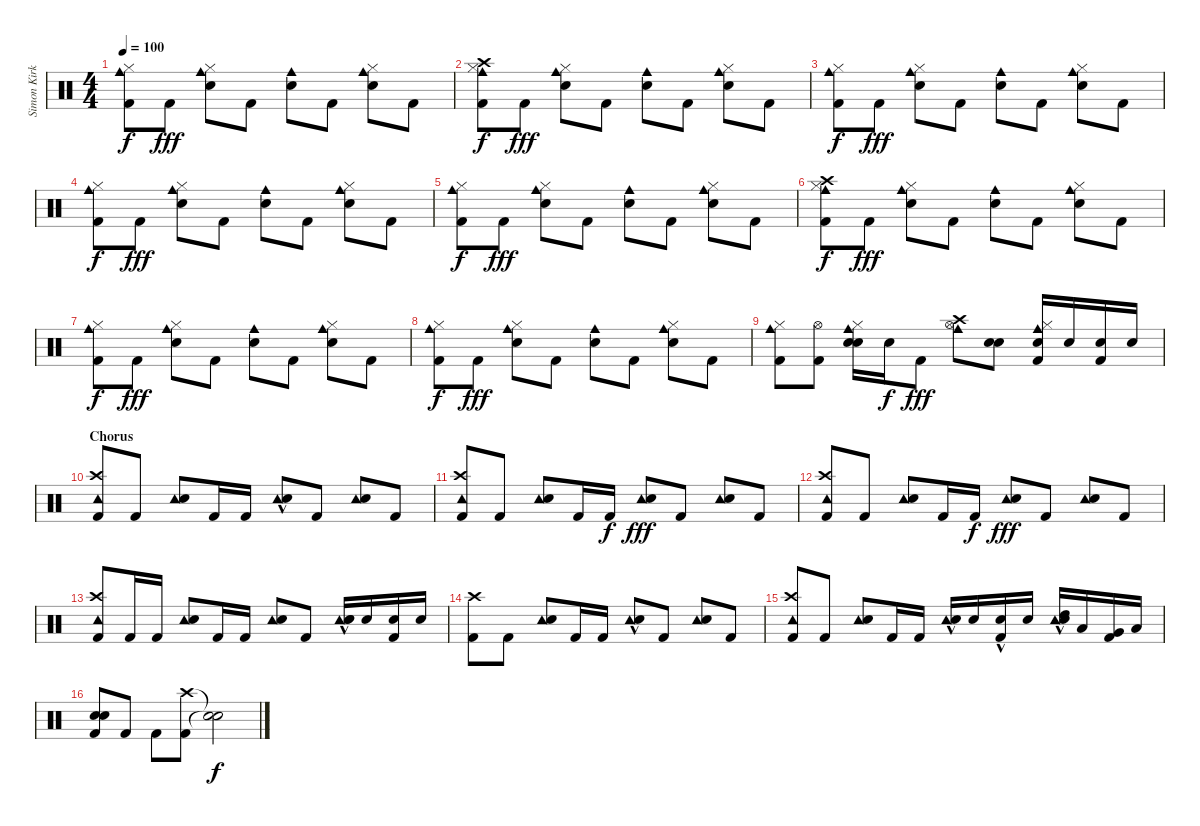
\track ("Simon Kirke" "Simon Kirk") {instrument percussion}
\staff {score}
\articulation defaults
\ts (4 4)
\tempo 100
\clef neutral
\ks c
("Kick (hit) 2" "Cowbell medium (hit)" "Hi-Hat (closed)").8{dy f} "Kick (hit) 2".8{dy fff} ("Cowbell medium (hit)" "Electric Snare (hit)" "Hi-Hat (closed)").8 "Kick (hit) 2".8 ("Cowbell medium (hit)" "Electric Snare (hit)").8 "Kick (hit) 2".8 ("Cowbell medium (hit)" "Electric Snare (hit)" "Hi-Hat (closed)").8 "Kick (hit) 2".8 |
("Kick (hit) 2" "Cowbell medium (hit)" "Hi-Hat (closed)" "Crash high (hit)").8{dy f} "Kick (hit) 2".8{dy fff} ("Cowbell medium (hit)" "Electric Snare (hit)" "Hi-Hat (closed)").8 "Kick (hit) 2".8 ("Cowbell medium (hit)" "Electric Snare (hit)").8 "Kick (hit) 2".8 ("Cowbell medium (hit)" "Electric Snare (hit)" "Hi-Hat (closed)").8 "Kick (hit) 2".8 |
("Kick (hit) 2" "Cowbell medium (hit)" "Hi-Hat (closed)").8{dy f} "Kick (hit) 2".8{dy fff} ("Cowbell medium (hit)" "Electric Snare (hit)" "Hi-Hat (closed)").8 "Kick (hit) 2".8 ("Cowbell medium (hit)" "Electric Snare (hit)").8 "Kick (hit) 2".8 ("Cowbell medium (hit)" "Electric Snare (hit)" "Hi-Hat (closed)").8 "Kick (hit) 2".8 |
("Kick (hit) 2" "Cowbell medium (hit)" "Hi-Hat (closed)").8{dy f} "Kick (hit) 2".8{dy fff} ("Cowbell medium (hit)" "Electric Snare (hit)" "Hi-Hat (closed)").8 "Kick (hit) 2".8 ("Cowbell medium (hit)" "Electric Snare (hit)").8 "Kick (hit) 2".8 ("Cowbell medium (hit)" "Electric Snare (hit)" "Hi-Hat (closed)").8 "Kick (hit) 2".8 |
("Kick (hit) 2" "Cowbell medium (hit)" "Hi-Hat (closed)").8{dy f} "Kick (hit) 2".8{dy fff} ("Cowbell medium (hit)" "Electric Snare (hit)" "Hi-Hat (closed)").8 "Kick (hit) 2".8 ("Cowbell medium (hit)" "Electric Snare (hit)").8 "Kick (hit) 2".8 ("Cowbell medium (hit)" "Electric Snare (hit)" "Hi-Hat (closed)").8 "Kick (hit) 2".8 |
("Kick (hit) 2" "Cowbell medium (hit)" "Hi-Hat (closed)" "Crash high (hit)").8{dy f} "Kick (hit) 2".8{dy fff} ("Cowbell medium (hit)" "Electric Snare (hit)" "Hi-Hat (closed)").8 "Kick (hit) 2".8 ("Cowbell medium (hit)" "Electric Snare (hit)").8 "Kick (hit) 2".8 ("Cowbell medium (hit)" "Electric Snare (hit)" "Hi-Hat (closed)").8 "Kick (hit) 2".8 |
("Kick (hit) 2" "Cowbell medium (hit)" "Hi-Hat (closed)").8{dy f} "Kick (hit) 2".8{dy fff} ("Cowbell medium (hit)" "Electric Snare (hit)" "Hi-Hat (closed)").8 "Kick (hit) 2".8 ("Cowbell medium (hit)" "Electric Snare (hit)").8 "Kick (hit) 2".8 ("Cowbell medium (hit)" "Electric Snare (hit)" "Hi-Hat (closed)").8 "Kick (hit) 2".8 |
("Kick (hit) 2" "Cowbell medium (hit)" "Hi-Hat (closed)").8{dy f} "Kick (hit) 2".8{dy fff} ("Cowbell medium (hit)" "Electric Snare (hit)" "Hi-Hat (closed)").8 "Kick (hit) 2".8 ("Cowbell medium (hit)" "Electric Snare (hit)").8 "Kick (hit) 2".8 ("Cowbell medium (hit)" "Electric Snare (hit)" "Hi-Hat (closed)").8 "Kick (hit) 2".8 |
("Kick (hit) 2" "Cowbell medium (hit)" "Hi-Hat (closed)").8 ("Kick (hit) 2" "Hi-Hat (open)").8 ("Cowbell medium (hit)" "Electric Snare (hit)" "Hi-Hat (closed)" "Electric Snare (hit)").16 "Electric Snare (hit)".16{dy f} "Kick (hit) 2".8{dy fff} ("Cowbell medium (hit)" "Crash high (hit)" "Hi-Hat (open)").8 ("Electric Snare (hit)" "Electric Snare (hit)").8 ("Kick (hit) 2" "Cowbell medium (hit)" "Electric Snare (hit)" "Hi-Hat (closed)").16 "Electric Snare (hit)".16 ("Electric Snare (hit)" "Kick (hit) 2").16 "Electric Snare (hit)".16 |
\section ("" "Chorus")
("Tambourine (hit)" "Crash high (hit)" "Kick (hit) 2").8 "Kick (hit) 2".8 ("Tambourine (hit)" "Electric Snare (hit)").8 "Kick (hit) 2".16 "Kick (hit) 2".16 ("Tambourine (hit)"{hac} "Electric Snare (hit)").8 "Kick (hit) 2".8 ("Tambourine (hit)" "Electric Snare (hit)").8 "Kick (hit) 2".8 |
("Tambourine (hit)" "Crash high (hit)" "Kick (hit) 2").8 "Kick (hit) 2".8 ("Tambourine (hit)" "Electric Snare (hit)").8 "Kick (hit) 2".16 "Kick (hit) 2".16{dy f} ("Tambourine (hit)" "Electric Snare (hit)").8{dy fff} "Kick (hit) 2".8 ("Tambourine (hit)" "Electric Snare (hit)").8 "Kick (hit) 2".8 |
("Tambourine (hit)" "Crash high (hit)" "Kick (hit) 2").8 "Kick (hit) 2".8 ("Tambourine (hit)" "Electric Snare (hit)").8 "Kick (hit) 2".16 "Kick (hit) 2".16{dy f} ("Tambourine (hit)" "Electric Snare (hit)").8{dy fff} "Kick (hit) 2".8 ("Tambourine (hit)" "Electric Snare (hit)").8 "Kick (hit) 2".8 |
("Tambourine (hit)" "Crash high (hit)" "Kick (hit) 2").8 "Kick (hit) 2".16 "Kick (hit) 2".16 ("Tambourine (hit)" "Electric Snare (hit)").8 "Kick (hit) 2".16 "Kick (hit) 2".16 ("Tambourine (hit)" "Electric Snare (hit)").8 "Kick (hit) 2".8 ("Tambourine (hit)"{hac} "Electric Snare (hit)" "Electric Snare (hit)").16 "Electric Snare (hit)".16 ("Electric Snare (hit)" "Kick (hit) 2").16 "Electric Snare (hit)".16 |
("Crash high (hit)" "Kick (hit) 2").8 "Kick (hit) 2".8 ("Tambourine (hit)" "Electric Snare (hit)").8 "Kick (hit) 2".16 "Kick (hit) 2".16 ("Tambourine (hit)"{hac} "Electric Snare (hit)").8 "Kick (hit) 2".8 ("Tambourine (hit)" "Electric Snare (hit)").8 "Kick (hit) 2".8 |
("Tambourine (hit)" "Crash high (hit)" "Kick (hit) 2").8 "Kick (hit) 2".8 ("Tambourine (hit)" "Electric Snare (hit)").8 "Kick (hit) 2".16 "Kick (hit) 2".16 ("Tambourine (hit)"{hac} "Electric Snare (hit)").16 "Electric Snare (hit)".16 ("Electric Snare (hit)" "Kick (hit) 2"{hac}).16 "Electric Snare (hit)".16 ("High Tom (hit)" "Tambourine (hit)"{hac} "Electric Snare (hit)").16 "Low Tom (hit)".16 ("Very Low Tom (hit)" "Kick (hit) 2").16 "Low Floor Tom (hit)".16 |
("Kick (hit) 2" "Electric Snare (hit)" "Electric Snare (hit)").8 "Kick (hit) 2".8 "Kick (hit) 2".8 ("Crash high (hit)" "Kick (hit) 2").8 ("Snare (hit)"{t} "Snare (hit)"{t}).2{dy f}
